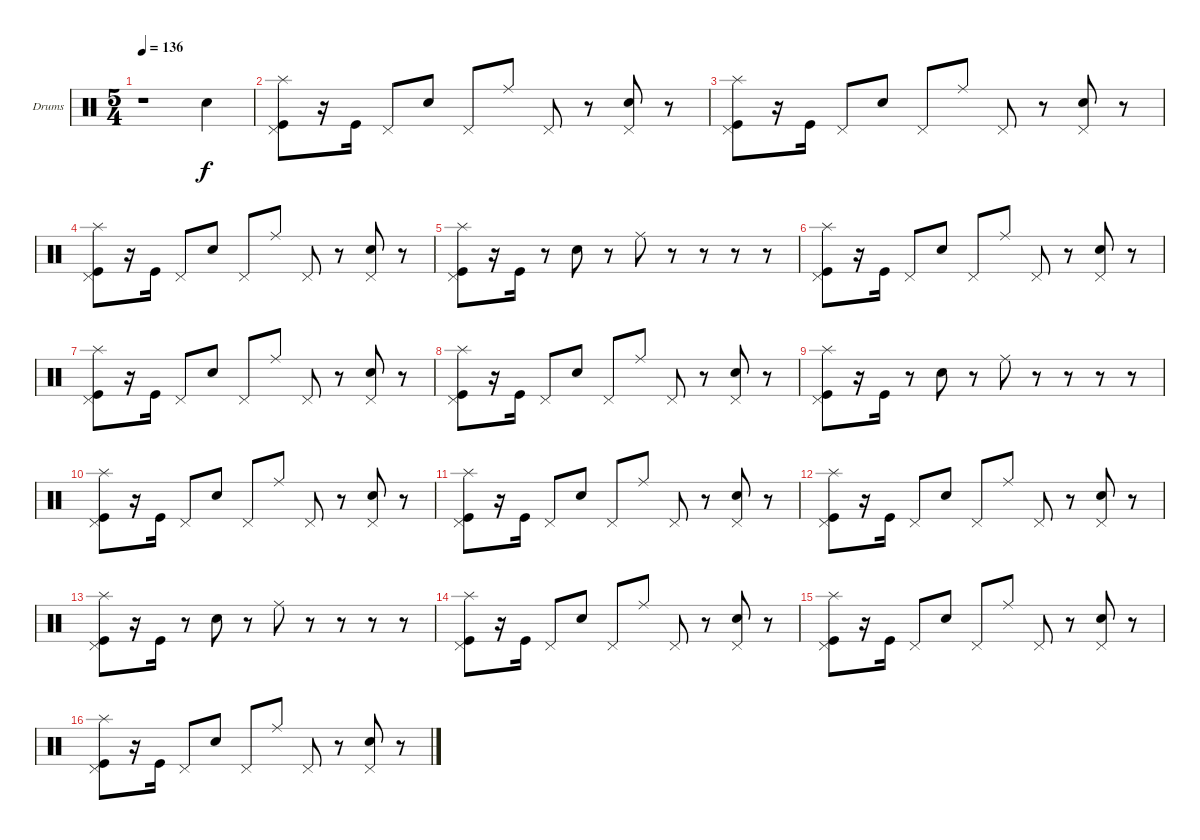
\bracketExtendMode groupsimilarinstruments
\firstSystemTrackNameOrientation horizontal
\otherSystemsTrackNameOrientation horizontal
\track ("Drumkit" "Drums") {instrument percussion}
\staff {score}
\articulation defaults
\ts (5 4)
\tempo 136
\clef neutral
\ks c
r.1{dy f} "Snare (hit) 2".4 |
("Splash (hit)" "Pedal Hi-Hat (hit)" "Kick (hit)").8 r.16 "Kick (hit)".16 "Pedal Hi-Hat (hit)".8 "Snare (hit) 2".8 "Pedal Hi-Hat (hit)".8 "Ride (middle)".8 "Pedal Hi-Hat (hit)".8 r.8 ("Snare (hit) 2" "Pedal Hi-Hat (hit)").8 r.8 |
("Pedal Hi-Hat (hit)" "Splash (hit)" "Kick (hit)").8 r.16 "Kick (hit)".16 "Pedal Hi-Hat (hit)".8 "Snare (hit) 2".8 "Pedal Hi-Hat (hit)".8 "Ride (middle)".8 "Pedal Hi-Hat (hit)".8 r.8 ("Snare (hit) 2" "Pedal Hi-Hat (hit)").8 r.8 |
("Kick (hit)" "Pedal Hi-Hat (hit)" "Splash (hit)").8 r.16 "Kick (hit)".16 "Pedal Hi-Hat (hit)".8 "Snare (hit) 2".8 "Pedal Hi-Hat (hit)".8 "Ride (middle)".8 "Pedal Hi-Hat (hit)".8 r.8 ("Snare (hit) 2" "Pedal Hi-Hat (hit)").8 r.8 |
("Pedal Hi-Hat (hit)" "Splash (hit)" "Kick (hit)").8 r.16 "Kick (hit)".16 r.8 "Snare (hit) 2".8 r.8 "Ride (middle)".8 r.8 r.8 r.8 r.8 |
("Kick (hit)" "Pedal Hi-Hat (hit)" "Splash (hit)").8 r.16 "Kick (hit)".16 "Pedal Hi-Hat (hit)".8 "Snare (hit) 2".8 "Pedal Hi-Hat (hit)".8 "Ride (middle)".8 "Pedal Hi-Hat (hit)".8 r.8 ("Snare (hit) 2" "Pedal Hi-Hat (hit)").8 r.8 |
("Pedal Hi-Hat (hit)" "Splash (hit)" "Kick (hit)").8 r.16 "Kick (hit)".16 "Pedal Hi-Hat (hit)".8 "Snare (hit) 2".8 "Pedal Hi-Hat (hit)".8 "Ride (middle)".8 "Pedal Hi-Hat (hit)".8 r.8 ("Snare (hit) 2" "Pedal Hi-Hat (hit)").8 r.8 |
("Kick (hit)" "Pedal Hi-Hat (hit)" "Splash (hit)").8 r.16 "Kick (hit)".16 "Pedal Hi-Hat (hit)".8 "Snare (hit) 2".8 "Pedal Hi-Hat (hit)".8 "Ride (middle)".8 "Pedal Hi-Hat (hit)".8 r.8 ("Snare (hit) 2" "Pedal Hi-Hat (hit)").8 r.8 |
("Pedal Hi-Hat (hit)" "Splash (hit)" "Kick (hit)").8 r.16 "Kick (hit)".16 r.8 "Snare (hit) 2".8 r.8 "Ride (middle)".8 r.8 r.8 r.8 r.8 |
("Kick (hit)" "Pedal Hi-Hat (hit)" "Splash (hit)").8 r.16 "Kick (hit)".16 "Pedal Hi-Hat (hit)".8 "Snare (hit) 2".8 "Pedal Hi-Hat (hit)".8 "Ride (middle)".8 "Pedal Hi-Hat (hit)".8 r.8 ("Snare (hit) 2" "Pedal Hi-Hat (hit)").8 r.8 |
("Pedal Hi-Hat (hit)" "Splash (hit)" "Kick (hit)").8 r.16 "Kick (hit)".16 "Pedal Hi-Hat (hit)".8 "Snare (hit) 2".8 "Pedal Hi-Hat (hit)".8 "Ride (middle)".8 "Pedal Hi-Hat (hit)".8 r.8 ("Snare (hit) 2" "Pedal Hi-Hat (hit)").8 r.8 |
("Kick (hit)" "Pedal Hi-Hat (hit)" "Splash (hit)").8 r.16 "Kick (hit)".16 "Pedal Hi-Hat (hit)".8 "Snare (hit) 2".8 "Pedal Hi-Hat (hit)".8 "Ride (middle)".8 "Pedal Hi-Hat (hit)".8 r.8 ("Snare (hit) 2" "Pedal Hi-Hat (hit)").8 r.8 |
("Pedal Hi-Hat (hit)" "Splash (hit)" "Kick (hit)").8 r.16 "Kick (hit)".16 r.8 "Snare (hit) 2".8 r.8 "Ride (middle)".8 r.8 r.8 r.8 r.8 |
("Kick (hit)" "Pedal Hi-Hat (hit)" "Splash (hit)").8 r.16 "Kick (hit)".16 "Pedal Hi-Hat (hit)".8 "Snare (hit) 2".8 "Pedal Hi-Hat (hit)".8 "Ride (middle)".8 "Pedal Hi-Hat (hit)".8 r.8 ("Snare (hit) 2" "Pedal Hi-Hat (hit)").8 r.8 |
("Pedal Hi-Hat (hit)" "Splash (hit)" "Kick (hit)").8 r.16 "Kick (hit)".16 "Pedal Hi-Hat (hit)".8 "Snare (hit) 2".8 "Pedal Hi-Hat (hit)".8 "Ride (middle)".8 "Pedal Hi-Hat (hit)".8 r.8 ("Snare (hit) 2" "Pedal Hi-Hat (hit)").8 r.8 |
("Kick (hit)" "Pedal Hi-Hat (hit)" "Splash (hit)").8 r.16 "Kick (hit)".16 "Pedal Hi-Hat (hit)".8 "Snare (hit) 2".8 "Pedal Hi-Hat (hit)".8 "Ride (middle)".8 "Pedal Hi-Hat (hit)".8 r.8 ("Snare (hit) 2" "Pedal Hi-Hat (hit)").8 r.8
